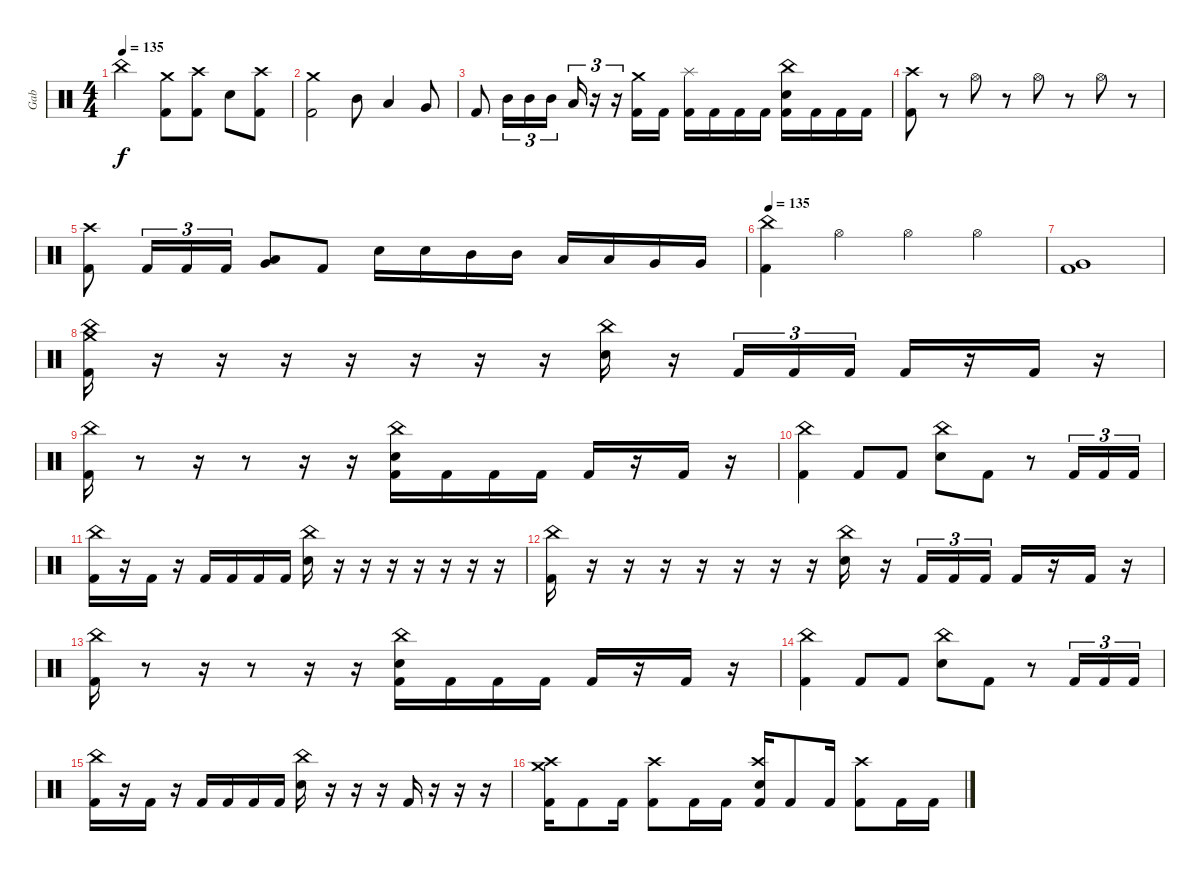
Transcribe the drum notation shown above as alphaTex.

\track ("Gab" "Gab") {instrument percussion}
\staff {score}
\articulation defaults
\ts (4 4)
\tempo 135
\clef neutral
\ks c "China (hit)".2{dy f}
("Crash medium (hit)" "Kick (hit) 2").8 ("Crash high (hit)" "Kick (hit) 2").8 "Electric Snare (hit)".8 ("Crash high (hit)" "Kick (hit) 2").8 |
("Crash medium (hit)" "Kick (hit) 2").2 "Mid Tom (hit)".8 "Low Tom (hit)".4 "Very Low Tom (hit)".8 |
"Kick (hit) 2".8 "Mid Tom (hit)".16{tu (3 2)} "Mid Tom (hit)".16{tu (3 2)} "Mid Tom (hit)".16{tu (3 2)} "Low Tom (hit)".16{tu (3 2)} r.16{tu (3 2)} r.16{tu (3 2)} ("Crash medium (hit)" "Kick (hit) 2").16 "Kick (hit) 2".16 ("Splash (hit)" "Kick (hit) 2").16 "Kick (hit) 2".16 "Kick (hit) 2".16 "Kick (hit) 2".16 ("China (hit)" "Electric Snare (hit)" "Kick (hit) 2").16 "Kick (hit) 2".16 "Kick (hit) 2".16 "Kick (hit) 2".16 |
("Crash high (hit)" "Kick (hit) 2").8 r.8 "Hi-Hat (open)".8 r.8 "Hi-Hat (open)".8 r.8 "Hi-Hat (open)".8 r.8 |
("Crash high (hit)" "Kick (hit) 2").8 "Kick (hit) 2".16{tu (3 2)} "Kick (hit) 2".16{tu (3 2)} "Kick (hit) 2".16{tu (3 2)} ("Low Tom (hit)" "Very Low Tom (hit)").8 "Kick (hit) 2".8 "Electric Snare (hit)".16 "Electric Snare (hit)".16 "Mid Tom (hit)".16 "Mid Tom (hit)".16 "Low Tom (hit)".16 "Low Tom (hit)".16 "Very Low Tom (hit)".16 "Very Low Tom (hit)".16 |
\tempo 135
("China (hit)" "Kick (hit) 2").4 "Hi-Hat (open)".4 "Hi-Hat (open)".4 "Hi-Hat (open)".4 |
("Very Low Tom (hit)" "Kick (hit) 2").1 |
("Crash medium (hit)" "China (hit)" "Kick (hit) 2").16 r.16 r.16 r.16 r.16 r.16 r.16 r.16 ("China (hit)" "Electric Snare (hit)").16 r.16 "Kick (hit) 2".16{tu (3 2)} "Kick (hit) 2".16{tu (3 2)} "Kick (hit) 2".16{tu (3 2)} "Kick (hit) 2".16 r.16 "Kick (hit) 2".16 r.16 |
("China (hit)" "Kick (hit) 2").16 r.8 r.16 r.8 r.16 r.16 ("China (hit)" "Electric Snare (hit)" "Kick (hit) 2").16 "Kick (hit) 2".16 "Kick (hit) 2".16 "Kick (hit) 2".16 "Kick (hit) 2".16 r.16 "Kick (hit) 2".16 r.16 |
("China (hit)" "Kick (hit) 2").4 "Kick (hit) 2".8 "Kick (hit) 2".8 ("China (hit)" "Electric Snare (hit)").8 "Kick (hit) 2".8 r.8 "Kick (hit) 2".16{tu (3 2)} "Kick (hit) 2".16{tu (3 2)} "Kick (hit) 2".16{tu (3 2)} |
("China (hit)" "Kick (hit) 2").16 r.16 "Kick (hit) 2".16 r.16 "Kick (hit) 2".16 "Kick (hit) 2".16 "Kick (hit) 2".16 "Kick (hit) 2".16 ("China (hit)" "Electric Snare (hit)").16 r.16 r.16 r.16 r.16 r.16 r.16 r.16 |
("China (hit)" "Kick (hit) 2").16 r.16 r.16 r.16 r.16 r.16 r.16 r.16 ("China (hit)" "Electric Snare (hit)").16 r.16 "Kick (hit) 2".16{tu (3 2)} "Kick (hit) 2".16{tu (3 2)} "Kick (hit) 2".16{tu (3 2)} "Kick (hit) 2".16 r.16 "Kick (hit) 2".16 r.16 |
("China (hit)" "Kick (hit) 2").16 r.8 r.16 r.8 r.16 r.16 ("China (hit)" "Electric Snare (hit)" "Kick (hit) 2").16 "Kick (hit) 2".16 "Kick (hit) 2".16 "Kick (hit) 2".16 "Kick (hit) 2".16 r.16 "Kick (hit) 2".16 r.16 |
("China (hit)" "Kick (hit) 2").4 "Kick (hit) 2".8 "Kick (hit) 2".8 ("China (hit)" "Electric Snare (hit)").8 "Kick (hit) 2".8 r.8 "Kick (hit) 2".16{tu (3 2)} "Kick (hit) 2".16{tu (3 2)} "Kick (hit) 2".16{tu (3 2)} |
("China (hit)" "Kick (hit) 2").16 r.16 "Kick (hit) 2".16 r.16 "Kick (hit) 2".16 "Kick (hit) 2".16 "Kick (hit) 2".16 "Kick (hit) 2".16 ("China (hit)" "Electric Snare (hit)").16 r.16 r.16 r.16 "Kick (hit) 2".16 r.16 r.16 r.16 |
("Crash medium (hit)" "Crash high (hit)" "Kick (hit) 2").16 "Kick (hit) 2".8 "Kick (hit) 2".16 ("Crash high (hit)" "Kick (hit) 2").8 "Kick (hit) 2".16 "Kick (hit) 2".16 ("Crash high (hit)" "Electric Snare (hit)" "Kick (hit) 2").16 "Kick (hit) 2".8 "Kick (hit) 2".16 ("Crash high (hit)" "Kick (hit) 2").8 "Kick (hit) 2".16 "Kick (hit) 2".16
